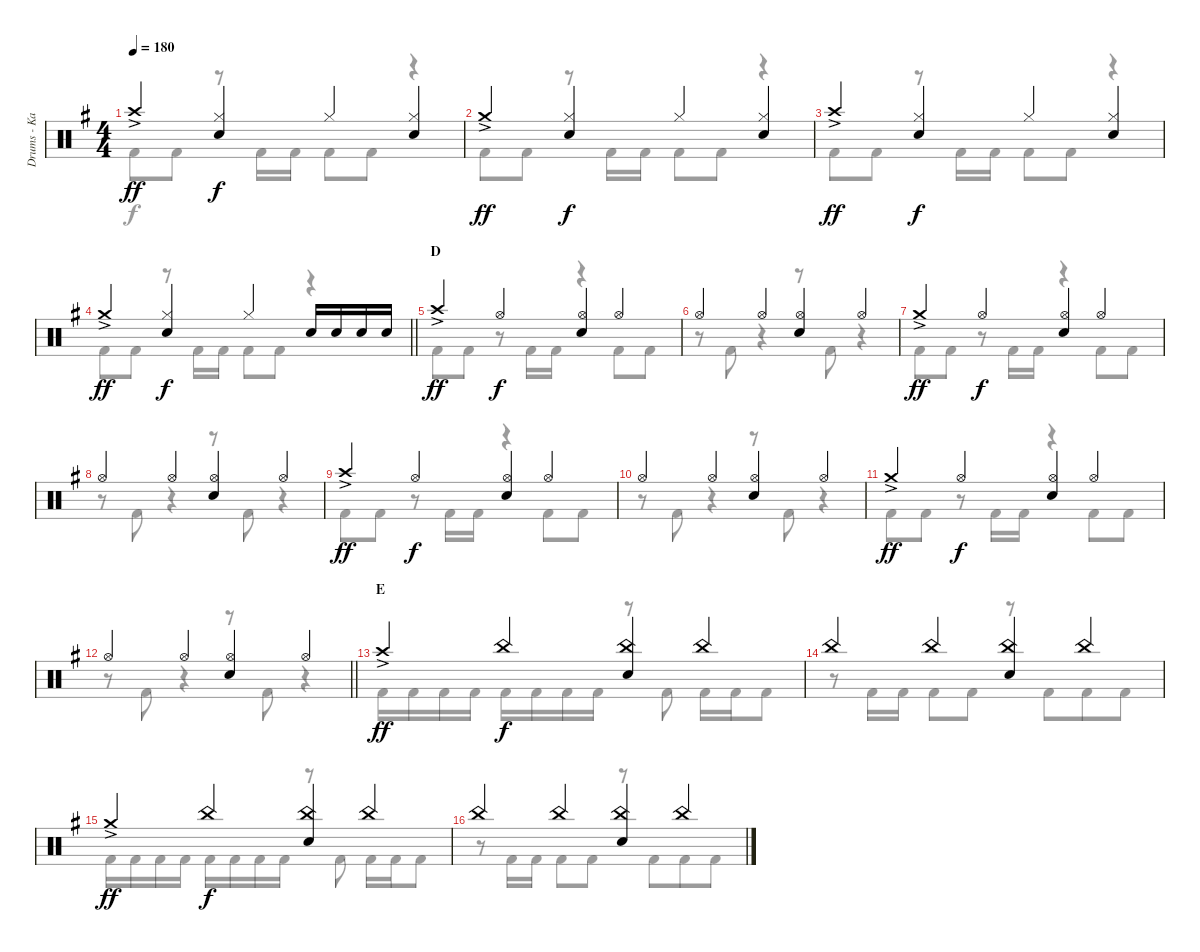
\track ("Drums - Kai" "Drums - Ka") {instrument percussion}
\staff {score}
\articulation defaults
\voice
\ts (4 4)
\tempo 180
\clef neutral
\ks g "Crash high (hit)"{ac}.4{dy ff}
("Hi-Hat (closed)" "Snare (hit) 2").4{dy f} "Hi-Hat (closed)".4 ("Hi-Hat (closed)" "Snare (hit) 2").4 |
"Crash medium (hit)"{ac}.4{dy ff} ("Hi-Hat (closed)" "Snare (hit) 2").4{dy f} "Hi-Hat (closed)".4 ("Hi-Hat (closed)" "Snare (hit) 2").4 |
"Crash high (hit)"{ac}.4{dy ff} ("Hi-Hat (closed)" "Snare (hit) 2").4{dy f} "Hi-Hat (closed)".4 ("Hi-Hat (closed)" "Snare (hit) 2").4 |
\barLineRight lightlight "Crash medium (hit)"{ac}.4{dy ff}
("Hi-Hat (closed)" "Snare (hit) 2").4{dy f} "Hi-Hat (closed)".4 "Snare (hit) 2".16 "Snare (hit) 2".16 "Snare (hit) 2".16 "Snare (hit) 2".16 |
\section ("" "D")
"Crash high (hit)"{ac}.4{dy ff} "Hi-Hat (open)".4{dy f} ("Hi-Hat (open)" "Snare (hit) 2").4 "Hi-Hat (open)".4 |
"Hi-Hat (open)".4 "Hi-Hat (open)".4 ("Hi-Hat (open)" "Snare (hit) 2").4 "Hi-Hat (open)".4 |
"Crash medium (hit)"{ac}.4{dy ff} "Hi-Hat (open)".4{dy f} ("Hi-Hat (open)" "Snare (hit) 2").4 "Hi-Hat (open)".4 |
"Hi-Hat (open)".4 "Hi-Hat (open)".4 ("Hi-Hat (open)" "Snare (hit) 2").4 "Hi-Hat (open)".4 |
"Crash high (hit)"{ac}.4{dy ff} "Hi-Hat (open)".4{dy f} ("Hi-Hat (open)" "Snare (hit) 2").4 "Hi-Hat (open)".4 |
"Hi-Hat (open)".4 "Hi-Hat (open)".4 ("Hi-Hat (open)" "Snare (hit) 2").4 "Hi-Hat (open)".4 |
"Crash medium (hit)"{ac}.4{dy ff} "Hi-Hat (open)".4{dy f} ("Hi-Hat (open)" "Snare (hit) 2").4 "Hi-Hat (open)".4 |
\barLineRight lightlight "Hi-Hat (open)".4 "Hi-Hat (open)".4
("Hi-Hat (open)" "Snare (hit) 2").4 "Hi-Hat (open)".4 |
\section ("" "E")
"Crash high (hit)"{ac}.4{dy ff} "China (hit)".4{dy f} ("China (hit)" "Snare (hit) 2").4 "China (hit)".4 |
"China (hit)".4 "China (hit)".4 ("China (hit)" "Snare (hit) 2").4 "China (hit)".4 |
"Crash medium (hit)"{ac}.4{dy ff} "China (hit)".4{dy f} ("China (hit)" "Snare (hit) 2").4 "China (hit)".4 |
"China (hit)".4 "China (hit)".4 ("China (hit)" "Snare (hit) 2").4 "China (hit)".4
\voice
\clef neutral
\ottava regular
\simile none
\ks g "Kick (hit) 2".8{dy f} "Kick (hit) 2".8
r.8 "Kick (hit) 2".16 "Kick (hit) 2".16 "Kick (hit) 2".8 "Kick (hit) 2".8 r.4 |
"Kick (hit) 2".8 "Kick (hit) 2".8 r.8 "Kick (hit) 2".16 "Kick (hit) 2".16 "Kick (hit) 2".8 "Kick (hit) 2".8 r.4 |
"Kick (hit) 2".8 "Kick (hit) 2".8 r.8 "Kick (hit) 2".16 "Kick (hit) 2".16 "Kick (hit) 2".8 "Kick (hit) 2".8 r.4 |
\barLineRight lightlight "Kick (hit) 2".8 "Kick (hit) 2".8
r.8 "Kick (hit) 2".16 "Kick (hit) 2".16 "Kick (hit) 2".8 "Kick (hit) 2".8 r.4 |
"Kick (hit) 2".8 "Kick (hit) 2".8 r.8 "Kick (hit) 2".16 "Kick (hit) 2".16 r.4 "Kick (hit) 2".8 "Kick (hit) 2".8 |
r.8 "Kick (hit) 2".8 r.4 r.8 "Kick (hit) 2".8 r.4 |
"Kick (hit) 2".8 "Kick (hit) 2".8 r.8 "Kick (hit) 2".16 "Kick (hit) 2".16 r.4 "Kick (hit) 2".8 "Kick (hit) 2".8 |
r.8 "Kick (hit) 2".8 r.4 r.8 "Kick (hit) 2".8 r.4 |
"Kick (hit) 2".8 "Kick (hit) 2".8 r.8 "Kick (hit) 2".16 "Kick (hit) 2".16 r.4 "Kick (hit) 2".8 "Kick (hit) 2".8 |
r.8 "Kick (hit) 2".8 r.4 r.8 "Kick (hit) 2".8 r.4 |
"Kick (hit) 2".8 "Kick (hit) 2".8 r.8 "Kick (hit) 2".16 "Kick (hit) 2".16 r.4 "Kick (hit) 2".8 "Kick (hit) 2".8 |
\barLineRight lightlight
r.8 "Kick (hit) 2".8 r.4 r.8 "Kick (hit) 2".8 r.4 |
"Kick (hit) 2".16 "Kick (hit) 2".16 "Kick (hit) 2".16 "Kick (hit) 2".16 "Kick (hit) 2".16 "Kick (hit) 2".16 "Kick (hit) 2".16 "Kick (hit) 2".16 r.8 "Kick (hit) 2".8 "Kick (hit) 2".16 "Kick (hit) 2".16 "Kick (hit) 2".8 |
r.8 "Kick (hit) 2".16 "Kick (hit) 2".16 "Kick (hit) 2".8 "Kick (hit) 2".8 r.8 "Kick (hit) 2".8{beam merge} "Kick (hit) 2".8 "Kick (hit) 2".8 |
"Kick (hit) 2".16 "Kick (hit) 2".16 "Kick (hit) 2".16 "Kick (hit) 2".16 "Kick (hit) 2".16 "Kick (hit) 2".16 "Kick (hit) 2".16 "Kick (hit) 2".16 r.8 "Kick (hit) 2".8 "Kick (hit) 2".16 "Kick (hit) 2".16 "Kick (hit) 2".8 |
r.8 "Kick (hit) 2".16 "Kick (hit) 2".16 "Kick (hit) 2".8 "Kick (hit) 2".8 r.8 "Kick (hit) 2".8{beam merge} "Kick (hit) 2".8 "Kick (hit) 2".8
